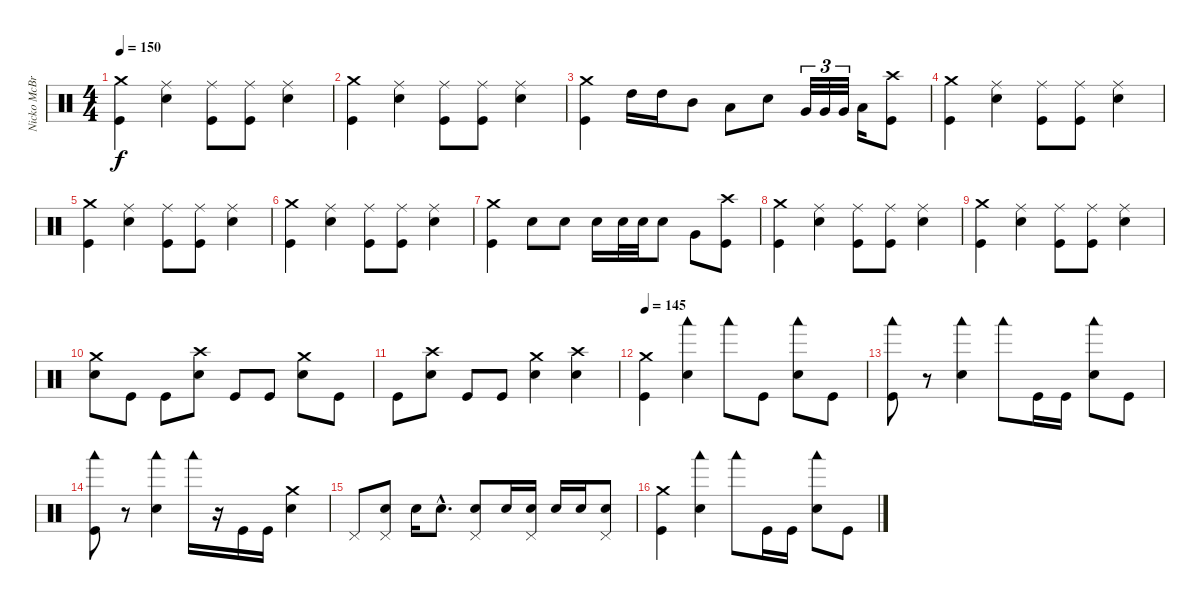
\track ("Nicko McBrain" "Nicko McBr") {instrument percussion}
\staff {score}
\articulation defaults
\ts (4 4)
\tempo 150
\clef neutral
\ks c
("Kick (hit)" "Crash medium (hit)").4{dy f} ("Electric Snare (hit)" "Ride (middle)").4 ("Kick (hit)" "Ride (middle)").8 ("Kick (hit)" "Ride (middle)").8 ("Electric Snare (hit)" "Ride (middle)").4 |
("Kick (hit)" "Crash medium (hit)").4 ("Electric Snare (hit)" "Ride (middle)").4 ("Kick (hit)" "Ride (middle)").8 ("Kick (hit)" "Ride (middle)").8 ("Electric Snare (hit)" "Ride (middle)").4 |
("Kick (hit)" "Crash medium (hit)").4 "High Tom (hit)".16 "High Tom (hit)".16 "Mid Tom (hit)".8 "Low Tom (hit)".8 "Electric Snare (hit)".8 "Very Low Tom (hit)".32{tu (3 2)} "Very Low Tom (hit)".32{tu (3 2)} "Very Low Tom (hit)".32{tu (3 2)} "Low Floor Tom (hit)".16 ("Kick (hit)" "Crash high (hit)").8 |
("Kick (hit)" "Crash medium (hit)").4 ("Electric Snare (hit)" "Ride (middle)").4 ("Kick (hit)" "Ride (middle)").8 ("Kick (hit)" "Ride (middle)").8 ("Electric Snare (hit)" "Ride (middle)").4 |
("Kick (hit)" "Crash medium (hit)").4 ("Electric Snare (hit)" "Ride (middle)").4 ("Kick (hit)" "Ride (middle)").8 ("Kick (hit)" "Ride (middle)").8 ("Electric Snare (hit)" "Ride (middle)").4 |
("Kick (hit)" "Crash medium (hit)").4 ("Electric Snare (hit)" "Ride (middle)").4 ("Kick (hit)" "Ride (middle)").8 ("Kick (hit)" "Ride (middle)").8 ("Electric Snare (hit)" "Ride (middle)").4 |
("Kick (hit)" "Crash medium (hit)").4 "Electric Snare (hit)".8 "Electric Snare (hit)".8 "Electric Snare (hit)".16 "Electric Snare (hit)".32 "Electric Snare (hit)".32 "Electric Snare (hit)".8 "Very Low Tom (hit)".8 ("Kick (hit)" "Crash high (hit)").8 |
("Kick (hit)" "Crash medium (hit)").4 ("Electric Snare (hit)" "Ride (middle)").4 ("Kick (hit)" "Ride (middle)").8 ("Kick (hit)" "Ride (middle)").8 ("Electric Snare (hit)" "Ride (middle)").4 |
("Kick (hit)" "Crash medium (hit)").4 ("Electric Snare (hit)" "Ride (middle)").4 ("Kick (hit)" "Ride (middle)").8 ("Kick (hit)" "Ride (middle)").8 ("Electric Snare (hit)" "Ride (middle)").4 |
("Electric Snare (hit)" "Crash medium (hit)").8 "Kick (hit)".8 "Kick (hit)".8 ("Electric Snare (hit)" "Crash high (hit)").8 "Kick (hit)".8 "Kick (hit)".8 ("Electric Snare (hit)" "Crash medium (hit)").8 "Kick (hit)".8 |
"Kick (hit)".8 ("Electric Snare (hit)" "Crash high (hit)").8 "Kick (hit)".8 "Kick (hit)".8 ("Electric Snare (hit)" "Crash medium (hit)").4 ("Electric Snare (hit)" "Crash high (hit)").4 |
\tempo 145
("Crash medium (hit)" "Kick (hit)").4 ("Woodblock low (hit)" "Electric Snare (hit)").4 "Woodblock low (hit)".8 "Kick (hit)".8 ("Woodblock low (hit)" "Electric Snare (hit)").8 "Kick (hit)".8 |
("Woodblock low (hit)" "Kick (hit)").8 r.8 ("Woodblock low (hit)" "Electric Snare (hit)").4 "Woodblock low (hit)".8 "Kick (hit)".16 "Kick (hit)".16 ("Woodblock low (hit)" "Electric Snare (hit)").8 "Kick (hit)".8 |
("Woodblock low (hit)" "Kick (hit)").8 r.8 ("Woodblock low (hit)" "Electric Snare (hit)").4 "Woodblock low (hit)".16 r.16 "Kick (hit)".16 "Kick (hit)".16 ("Crash medium (hit)" "Electric Snare (hit)").4 |
"Pedal Hi-Hat (hit)".8 ("Pedal Hi-Hat (hit)" "Electric Snare (hit)").8 "Electric Snare (hit)".16 "Electric Snare (hit)"{hac}.8{d} ("Pedal Hi-Hat (hit)" "Electric Snare (hit)").8 "Electric Snare (hit)".16 ("Pedal Hi-Hat (hit)" "Electric Snare (hit)").16 "Electric Snare (hit)".16 "Electric Snare (hit)".16 ("Pedal Hi-Hat (hit)" "Electric Snare (hit)").8 |
("Crash medium (hit)" "Kick (hit)").4 ("Woodblock low (hit)" "Electric Snare (hit)").4 "Woodblock low (hit)".8 "Kick (hit)".16 "Kick (hit)".16 ("Woodblock low (hit)" "Electric Snare (hit)").8 "Kick (hit)".8
